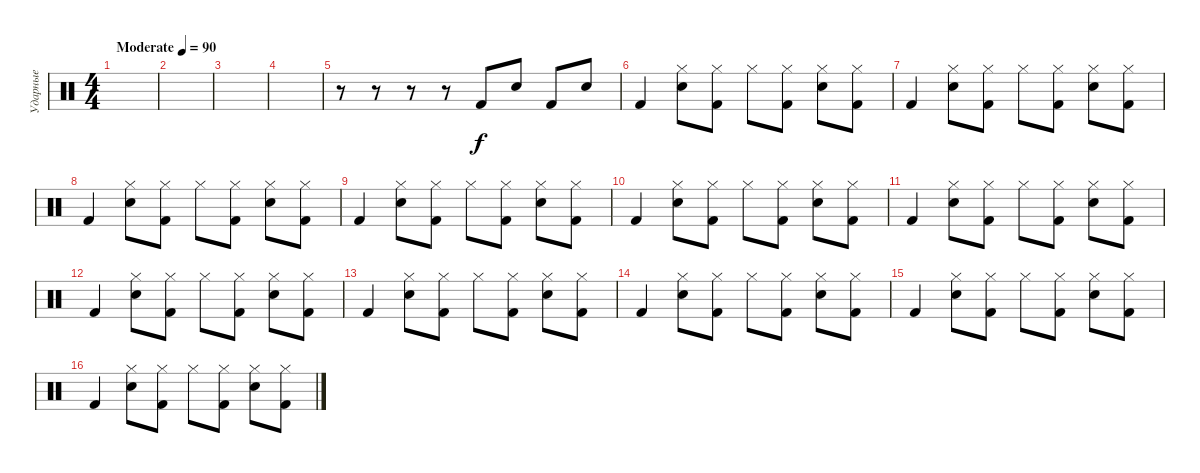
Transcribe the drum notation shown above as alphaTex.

\track ("Ударные" "Ударные") {instrument percussion}
\staff {score}
\articulation defaults
\ts (4 4)
\tempo (90 "Moderate")
\clef neutral
\ks c
|
|
|
|
r.8 r.8 r.8 r.8 "Kick (hit) 2".8 "Electric Snare (hit)".8 "Kick (hit) 2".8 "Electric Snare (hit)".8 |
"Kick (hit) 2".4 ("Electric Snare (hit)" "Hi-Hat (closed)").8 ("Kick (hit) 2" "Hi-Hat (closed)").8 "Hi-Hat (closed)".8 ("Kick (hit) 2" "Hi-Hat (closed)").8 ("Electric Snare (hit)" "Hi-Hat (closed)").8 ("Kick (hit) 2" "Hi-Hat (closed)").8 |
"Kick (hit) 2".4 ("Electric Snare (hit)" "Hi-Hat (closed)").8 ("Kick (hit) 2" "Hi-Hat (closed)").8 "Hi-Hat (closed)".8 ("Kick (hit) 2" "Hi-Hat (closed)").8 ("Electric Snare (hit)" "Hi-Hat (closed)").8 ("Kick (hit) 2" "Hi-Hat (closed)").8 |
"Kick (hit) 2".4 ("Electric Snare (hit)" "Hi-Hat (closed)").8 ("Kick (hit) 2" "Hi-Hat (closed)").8 "Hi-Hat (closed)".8 ("Kick (hit) 2" "Hi-Hat (closed)").8 ("Electric Snare (hit)" "Hi-Hat (closed)").8 ("Kick (hit) 2" "Hi-Hat (closed)").8 |
"Kick (hit) 2".4 ("Electric Snare (hit)" "Hi-Hat (closed)").8 ("Kick (hit) 2" "Hi-Hat (closed)").8 "Hi-Hat (closed)".8 ("Kick (hit) 2" "Hi-Hat (closed)").8 ("Electric Snare (hit)" "Hi-Hat (closed)").8 ("Kick (hit) 2" "Hi-Hat (closed)").8 |
"Kick (hit) 2".4 ("Electric Snare (hit)" "Hi-Hat (closed)").8 ("Kick (hit) 2" "Hi-Hat (closed)").8 "Hi-Hat (closed)".8 ("Kick (hit) 2" "Hi-Hat (closed)").8 ("Electric Snare (hit)" "Hi-Hat (closed)").8 ("Kick (hit) 2" "Hi-Hat (closed)").8 |
"Kick (hit) 2".4 ("Electric Snare (hit)" "Hi-Hat (closed)").8 ("Kick (hit) 2" "Hi-Hat (closed)").8 "Hi-Hat (closed)".8 ("Kick (hit) 2" "Hi-Hat (closed)").8 ("Electric Snare (hit)" "Hi-Hat (closed)").8 ("Kick (hit) 2" "Hi-Hat (closed)").8 |
"Kick (hit) 2".4 ("Electric Snare (hit)" "Hi-Hat (closed)").8 ("Kick (hit) 2" "Hi-Hat (closed)").8 "Hi-Hat (closed)".8 ("Kick (hit) 2" "Hi-Hat (closed)").8 ("Electric Snare (hit)" "Hi-Hat (closed)").8 ("Kick (hit) 2" "Hi-Hat (closed)").8 |
"Kick (hit) 2".4 ("Electric Snare (hit)" "Hi-Hat (closed)").8 ("Kick (hit) 2" "Hi-Hat (closed)").8 "Hi-Hat (closed)".8 ("Kick (hit) 2" "Hi-Hat (closed)").8 ("Electric Snare (hit)" "Hi-Hat (closed)").8 ("Kick (hit) 2" "Hi-Hat (closed)").8 |
"Kick (hit) 2".4 ("Electric Snare (hit)" "Hi-Hat (closed)").8 ("Kick (hit) 2" "Hi-Hat (closed)").8 "Hi-Hat (closed)".8 ("Kick (hit) 2" "Hi-Hat (closed)").8 ("Electric Snare (hit)" "Hi-Hat (closed)").8 ("Kick (hit) 2" "Hi-Hat (closed)").8 |
"Kick (hit) 2".4 ("Electric Snare (hit)" "Hi-Hat (closed)").8 ("Kick (hit) 2" "Hi-Hat (closed)").8 "Hi-Hat (closed)".8 ("Kick (hit) 2" "Hi-Hat (closed)").8 ("Electric Snare (hit)" "Hi-Hat (closed)").8 ("Kick (hit) 2" "Hi-Hat (closed)").8 |
"Kick (hit) 2".4 ("Electric Snare (hit)" "Hi-Hat (closed)").8 ("Kick (hit) 2" "Hi-Hat (closed)").8 "Hi-Hat (closed)".8 ("Kick (hit) 2" "Hi-Hat (closed)").8 ("Electric Snare (hit)" "Hi-Hat (closed)").8 ("Kick (hit) 2" "Hi-Hat (closed)").8
